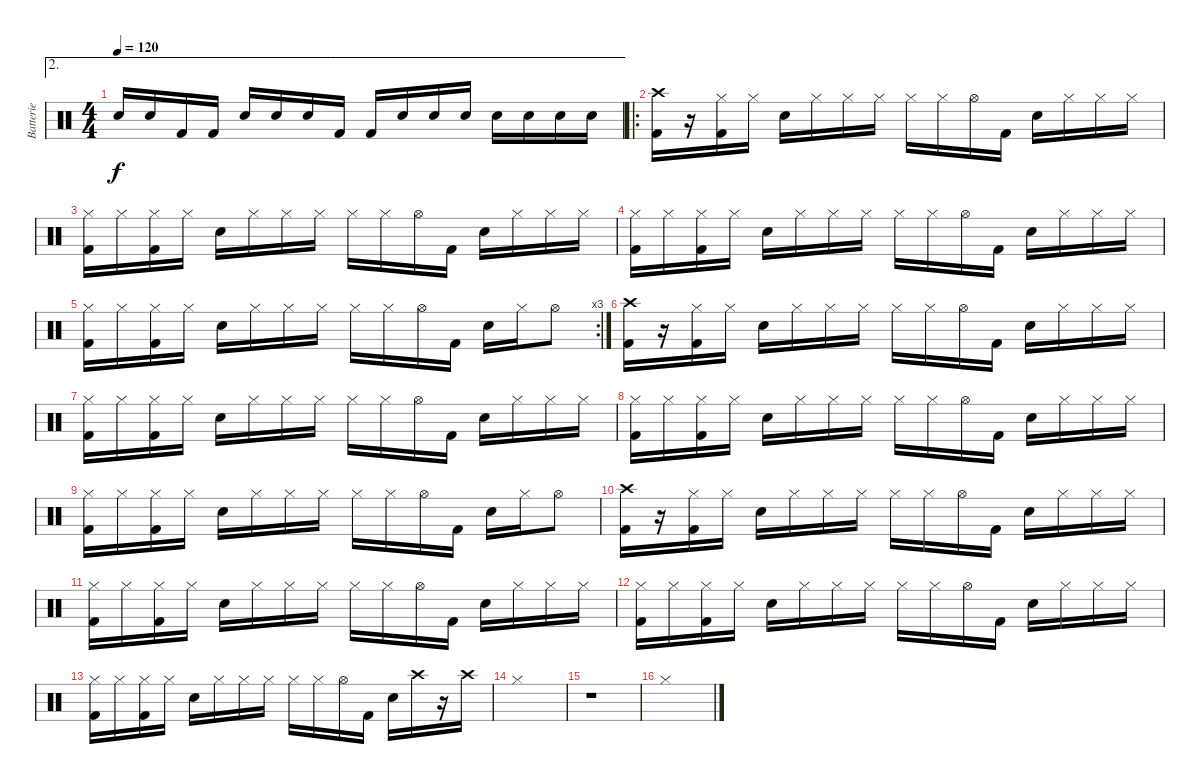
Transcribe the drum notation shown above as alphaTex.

\track ("Batterie" "Batterie") {instrument percussion}
\staff {score}
\articulation defaults
\ae 2
\ts (4 4)
\tempo 120
\clef neutral
\ks c "Snare (hit) 2".16{dy f} "Snare (hit) 2".16 "Kick (hit) 2".16 "Kick (hit) 2".16 "Snare (hit) 2".16 "Snare (hit) 2".16 "Snare (hit) 2".16 "Kick (hit) 2".16 "Kick (hit) 2".16 "Snare (hit) 2".16 "Snare (hit) 2".16 "Snare (hit) 2".16 "Snare (hit) 2".16 "Snare (hit) 2".16 "Snare (hit) 2".16 "Snare (hit) 2".16
|
\ro
("Crash high (hit)" "Kick (hit) 2").16 r.16 ("Hi-Hat (closed)" "Kick (hit) 2").16 "Hi-Hat (closed)".16 "Snare (hit) 2".16 "Hi-Hat (closed)".16 "Hi-Hat (closed)".16 "Hi-Hat (closed)".16 "Hi-Hat (closed)".16 "Hi-Hat (closed)".16 "Hi-Hat (open)".16 "Kick (hit) 2".16 "Snare (hit) 2".16 "Hi-Hat (closed)".16 "Hi-Hat (closed)".16 "Hi-Hat (closed)".16 |
("Hi-Hat (closed)" "Kick (hit) 2").16 "Hi-Hat (closed)".16 ("Hi-Hat (closed)" "Kick (hit) 2").16 "Hi-Hat (closed)".16 "Snare (hit) 2".16 "Hi-Hat (closed)".16 "Hi-Hat (closed)".16 "Hi-Hat (closed)".16 "Hi-Hat (closed)".16 "Hi-Hat (closed)".16 "Hi-Hat (open)".16 "Kick (hit) 2".16 "Snare (hit) 2".16 "Hi-Hat (closed)".16 "Hi-Hat (closed)".16 "Hi-Hat (closed)".16 |
("Hi-Hat (closed)" "Kick (hit) 2").16 "Hi-Hat (closed)".16 ("Hi-Hat (closed)" "Kick (hit) 2").16 "Hi-Hat (closed)".16 "Snare (hit) 2".16 "Hi-Hat (closed)".16 "Hi-Hat (closed)".16 "Hi-Hat (closed)".16 "Hi-Hat (closed)".16 "Hi-Hat (closed)".16 "Hi-Hat (open)".16 "Kick (hit) 2".16 "Snare (hit) 2".16 "Hi-Hat (closed)".16 "Hi-Hat (closed)".16 "Hi-Hat (closed)".16 |
\rc 3
("Hi-Hat (closed)" "Kick (hit) 2").16 "Hi-Hat (closed)".16 ("Hi-Hat (closed)" "Kick (hit) 2").16 "Hi-Hat (closed)".16 "Snare (hit) 2".16 "Hi-Hat (closed)".16 "Hi-Hat (closed)".16 "Hi-Hat (closed)".16 "Hi-Hat (closed)".16 "Hi-Hat (closed)".16 "Hi-Hat (open)".16 "Kick (hit) 2".16 "Snare (hit) 2".16 "Hi-Hat (closed)".16 "Hi-Hat (open)".8 |
("Crash high (hit)" "Kick (hit) 2").16 r.16 ("Hi-Hat (closed)" "Kick (hit) 2").16 "Hi-Hat (closed)".16 "Snare (hit) 2".16 "Hi-Hat (closed)".16 "Hi-Hat (closed)".16 "Hi-Hat (closed)".16 "Hi-Hat (closed)".16 "Hi-Hat (closed)".16 "Hi-Hat (open)".16 "Kick (hit) 2".16 "Snare (hit) 2".16 "Hi-Hat (closed)".16 "Hi-Hat (closed)".16 "Hi-Hat (closed)".16 |
("Hi-Hat (closed)" "Kick (hit) 2").16 "Hi-Hat (closed)".16 ("Hi-Hat (closed)" "Kick (hit) 2").16 "Hi-Hat (closed)".16 "Snare (hit) 2".16 "Hi-Hat (closed)".16 "Hi-Hat (closed)".16 "Hi-Hat (closed)".16 "Hi-Hat (closed)".16 "Hi-Hat (closed)".16 "Hi-Hat (open)".16 "Kick (hit) 2".16 "Snare (hit) 2".16 "Hi-Hat (closed)".16 "Hi-Hat (closed)".16 "Hi-Hat (closed)".16 |
("Hi-Hat (closed)" "Kick (hit) 2").16 "Hi-Hat (closed)".16 ("Hi-Hat (closed)" "Kick (hit) 2").16 "Hi-Hat (closed)".16 "Snare (hit) 2".16 "Hi-Hat (closed)".16 "Hi-Hat (closed)".16 "Hi-Hat (closed)".16 "Hi-Hat (closed)".16 "Hi-Hat (closed)".16 "Hi-Hat (open)".16 "Kick (hit) 2".16 "Snare (hit) 2".16 "Hi-Hat (closed)".16 "Hi-Hat (closed)".16 "Hi-Hat (closed)".16 |
("Hi-Hat (closed)" "Kick (hit) 2").16 "Hi-Hat (closed)".16 ("Hi-Hat (closed)" "Kick (hit) 2").16 "Hi-Hat (closed)".16 "Snare (hit) 2".16 "Hi-Hat (closed)".16 "Hi-Hat (closed)".16 "Hi-Hat (closed)".16 "Hi-Hat (closed)".16 "Hi-Hat (closed)".16 "Hi-Hat (open)".16 "Kick (hit) 2".16 "Snare (hit) 2".16 "Hi-Hat (closed)".16 "Hi-Hat (open)".8 |
("Crash high (hit)" "Kick (hit) 2").16 r.16 ("Hi-Hat (closed)" "Kick (hit) 2").16 "Hi-Hat (closed)".16 "Snare (hit) 2".16 "Hi-Hat (closed)".16 "Hi-Hat (closed)".16 "Hi-Hat (closed)".16 "Hi-Hat (closed)".16 "Hi-Hat (closed)".16 "Hi-Hat (open)".16 "Kick (hit) 2".16 "Snare (hit) 2".16 "Hi-Hat (closed)".16 "Hi-Hat (closed)".16 "Hi-Hat (closed)".16 |
("Hi-Hat (closed)" "Kick (hit) 2").16 "Hi-Hat (closed)".16 ("Hi-Hat (closed)" "Kick (hit) 2").16 "Hi-Hat (closed)".16 "Snare (hit) 2".16 "Hi-Hat (closed)".16 "Hi-Hat (closed)".16 "Hi-Hat (closed)".16 "Hi-Hat (closed)".16 "Hi-Hat (closed)".16 "Hi-Hat (open)".16 "Kick (hit) 2".16 "Snare (hit) 2".16 "Hi-Hat (closed)".16 "Hi-Hat (closed)".16 "Hi-Hat (closed)".16 |
("Hi-Hat (closed)" "Kick (hit) 2").16 "Hi-Hat (closed)".16 ("Hi-Hat (closed)" "Kick (hit) 2").16 "Hi-Hat (closed)".16 "Snare (hit) 2".16 "Hi-Hat (closed)".16 "Hi-Hat (closed)".16 "Hi-Hat (closed)".16 "Hi-Hat (closed)".16 "Hi-Hat (closed)".16 "Hi-Hat (open)".16 "Kick (hit) 2".16 "Snare (hit) 2".16 "Hi-Hat (closed)".16 "Hi-Hat (closed)".16 "Hi-Hat (closed)".16 |
("Hi-Hat (closed)" "Kick (hit) 2").16 "Hi-Hat (closed)".16 ("Hi-Hat (closed)" "Kick (hit) 2").16 "Hi-Hat (closed)".16 "Snare (hit) 2".16 "Hi-Hat (closed)".16 "Hi-Hat (closed)".16 "Hi-Hat (closed)".16 "Hi-Hat (closed)".16 "Hi-Hat (closed)".16 "Hi-Hat (open)".16 "Kick (hit) 2".16 "Snare (hit) 2".16 "Crash high (hit)".16 r.16 "Crash high (hit)".16 |
"Hi-Hat (closed)".1 |
r.1 |
"Hi-Hat (closed)".1
